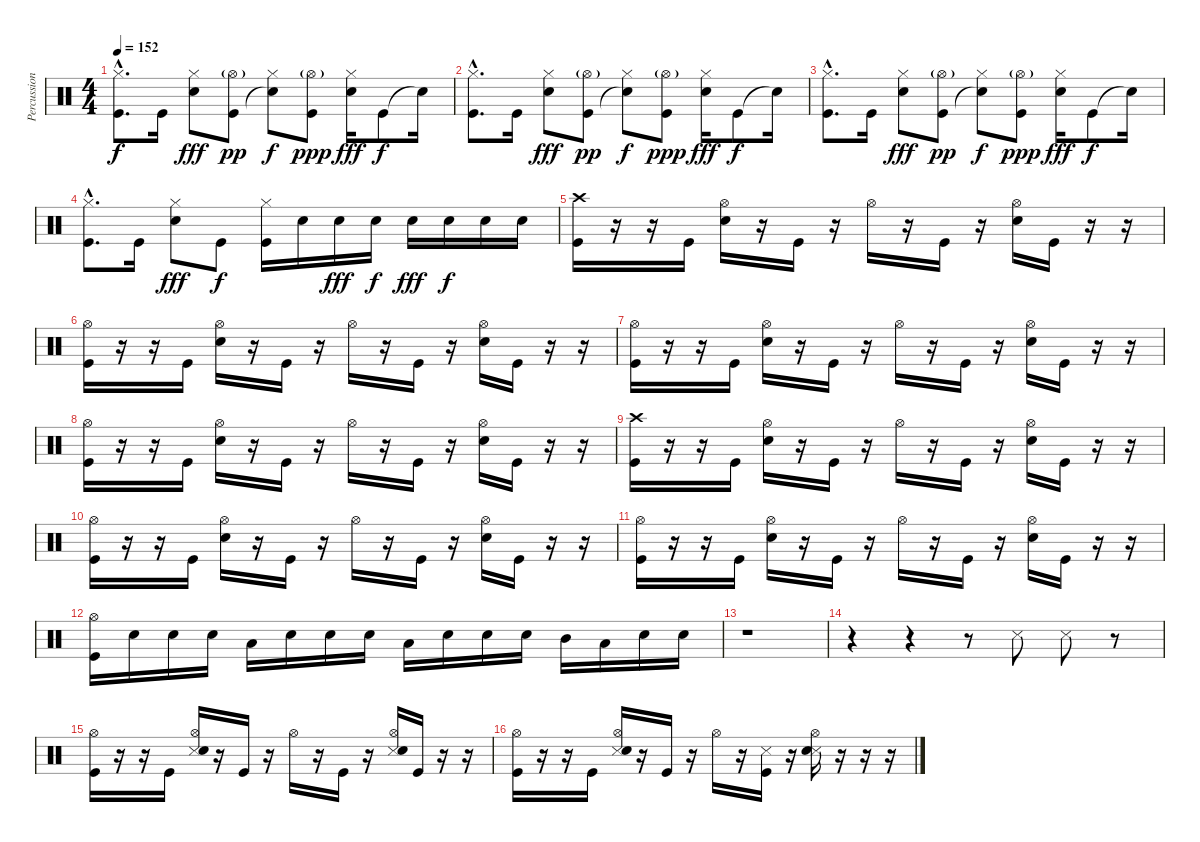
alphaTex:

\track ("Percussions" "Percussion") {instrument percussion}
\staff {score}
\articulation defaults
\ts (4 4)
\tempo 152
\clef neutral
\ks c
("Hi-Hat (closed)"{hac} "Kick (hit)"{hac}).8{d dy f} "Kick (hit)".16 ("Hi-Hat (closed)" "Snare (hit) 2").8{dy fff} ("Hi-Hat (open)"{g} "Kick (hit)").8{dy pp} ("Hi-Hat (closed)" "Snare (hit)"{t}).8{dy f} ("Hi-Hat (open)"{g} "Kick (hit)").8{dy ppp} ("Hi-Hat (closed)" "Snare (hit) 2").16{dy fff} "Kick (hit)".8{dy f} "Snare (hit)"{t}.16 |
("Hi-Hat (closed)"{hac} "Kick (hit)"{hac}).8{d} "Kick (hit)".16 ("Hi-Hat (closed)" "Snare (hit) 2").8{dy fff} ("Hi-Hat (open)"{g} "Kick (hit)").8{dy pp} ("Hi-Hat (closed)" "Snare (hit)"{t}).8{dy f} ("Hi-Hat (open)"{g} "Kick (hit)").8{dy ppp} ("Hi-Hat (closed)" "Snare (hit) 2").16{dy fff} "Kick (hit)".8{dy f} "Snare (hit)"{t}.16 |
("Hi-Hat (closed)"{hac} "Kick (hit)"{hac}).8{d} "Kick (hit)".16 ("Hi-Hat (closed)" "Snare (hit) 2").8{dy fff} ("Hi-Hat (open)"{g} "Kick (hit)").8{dy pp} ("Hi-Hat (closed)" "Snare (hit)"{t}).8{dy f} ("Hi-Hat (open)"{g} "Kick (hit)").8{dy ppp} ("Hi-Hat (closed)" "Snare (hit) 2").16{dy fff} "Kick (hit)".8{dy f} "Snare (hit)"{t}.16 |
("Hi-Hat (closed)"{hac} "Kick (hit)"{hac}).8{d} "Kick (hit)".16 ("Hi-Hat (closed)" "Snare (hit) 2").8{dy fff} "Kick (hit)".8{dy f} ("Hi-Hat (closed)" "Kick (hit)").16 "Snare (hit) 2".16 "Snare (hit) 2".16{dy fff} "Snare (hit) 2".16{dy f} "Snare (hit) 2".16{dy fff} "Snare (hit) 2".16{dy f} "Snare (hit) 2".16 "Snare (hit) 2".16 |
("Crash high (hit)" "Kick (hit)").16 r.16 r.16 "Kick (hit)".16 ("Hi-Hat (open)" "Snare (hit) 2").16 r.16 "Kick (hit)".16 r.16 "Hi-Hat (open)".16 r.16 "Kick (hit)".16 r.16 ("Hi-Hat (open)" "Snare (hit) 2").16 "Kick (hit)".16 r.16 r.16 |
("Hi-Hat (open)" "Kick (hit)").16 r.16 r.16 "Kick (hit)".16 ("Hi-Hat (open)" "Snare (hit) 2").16 r.16 "Kick (hit)".16 r.16 "Hi-Hat (open)".16 r.16 "Kick (hit)".16 r.16 ("Hi-Hat (open)" "Snare (hit) 2").16 "Kick (hit)".16 r.16 r.16 |
("Hi-Hat (open)" "Kick (hit)").16 r.16 r.16 "Kick (hit)".16 ("Hi-Hat (open)" "Snare (hit) 2").16 r.16 "Kick (hit)".16 r.16 "Hi-Hat (open)".16 r.16 "Kick (hit)".16 r.16 ("Hi-Hat (open)" "Snare (hit) 2").16 "Kick (hit)".16 r.16 r.16 |
("Hi-Hat (open)" "Kick (hit)").16 r.16 r.16 "Kick (hit)".16 ("Hi-Hat (open)" "Snare (hit) 2").16 r.16 "Kick (hit)".16 r.16 "Hi-Hat (open)".16 r.16 "Kick (hit)".16 r.16 ("Hi-Hat (open)" "Snare (hit) 2").16 "Kick (hit)".16 r.16 r.16 |
("Crash high (hit)" "Kick (hit)").16 r.16 r.16 "Kick (hit)".16 ("Hi-Hat (open)" "Snare (hit) 2").16 r.16 "Kick (hit)".16 r.16 "Hi-Hat (open)".16 r.16 "Kick (hit)".16 r.16 ("Hi-Hat (open)" "Snare (hit) 2").16 "Kick (hit)".16 r.16 r.16 |
("Hi-Hat (open)" "Kick (hit)").16 r.16 r.16 "Kick (hit)".16 ("Hi-Hat (open)" "Snare (hit) 2").16 r.16 "Kick (hit)".16 r.16 "Hi-Hat (open)".16 r.16 "Kick (hit)".16 r.16 ("Hi-Hat (open)" "Snare (hit) 2").16 "Kick (hit)".16 r.16 r.16 |
("Hi-Hat (open)" "Kick (hit)").16 r.16 r.16 "Kick (hit)".16 ("Hi-Hat (open)" "Snare (hit) 2").16 r.16 "Kick (hit)".16 r.16 "Hi-Hat (open)".16 r.16 "Kick (hit)".16 r.16 ("Hi-Hat (open)" "Snare (hit) 2").16 "Kick (hit)".16 r.16 r.16 |
("Hi-Hat (open)" "Kick (hit)").16 "Snare (hit) 2".16 "Snare (hit) 2".16 "Snare (hit) 2".16 "Low Tom (hit)".16 "Snare (hit) 2".16 "Snare (hit) 2".16 "Snare (hit) 2".16 "Low Tom (hit)".16 "Snare (hit) 2".16 "Snare (hit) 2".16 "Snare (hit) 2".16 "Mid Tom (hit)".16 "Low Tom (hit)".16 "Snare (hit) 2".16 "Snare (hit) 2".16 |
r.1 |
r.4 r.4 r.8 "Snare (side stick) 3".8 "Snare (side stick) 3".8 r.8 |
("Hi-Hat (open)" "Kick (hit)").16 r.16 r.16 "Kick (hit)".16 ("Hi-Hat (open)" "Snare (side stick) 3" "Snare (hit) 2").16 r.16 "Kick (hit)".16 r.16 "Hi-Hat (open)".16 r.16 "Kick (hit)".16 r.16 ("Hi-Hat (open)" "Snare (side stick) 3" "Snare (hit) 2").16 "Kick (hit)".16 r.16 r.16 |
("Hi-Hat (open)" "Kick (hit)").16 r.16 r.16 "Kick (hit)".16 ("Hi-Hat (open)" "Snare (side stick) 3" "Snare (hit) 2").16 r.16 "Kick (hit)".16 r.16 "Hi-Hat (open)".16 r.16 ("Snare (side stick) 3" "Kick (hit)").16 r.16 ("Hi-Hat (open)" "Snare (side stick) 3" "Snare (hit) 2").16 r.16 r.16 r.16
